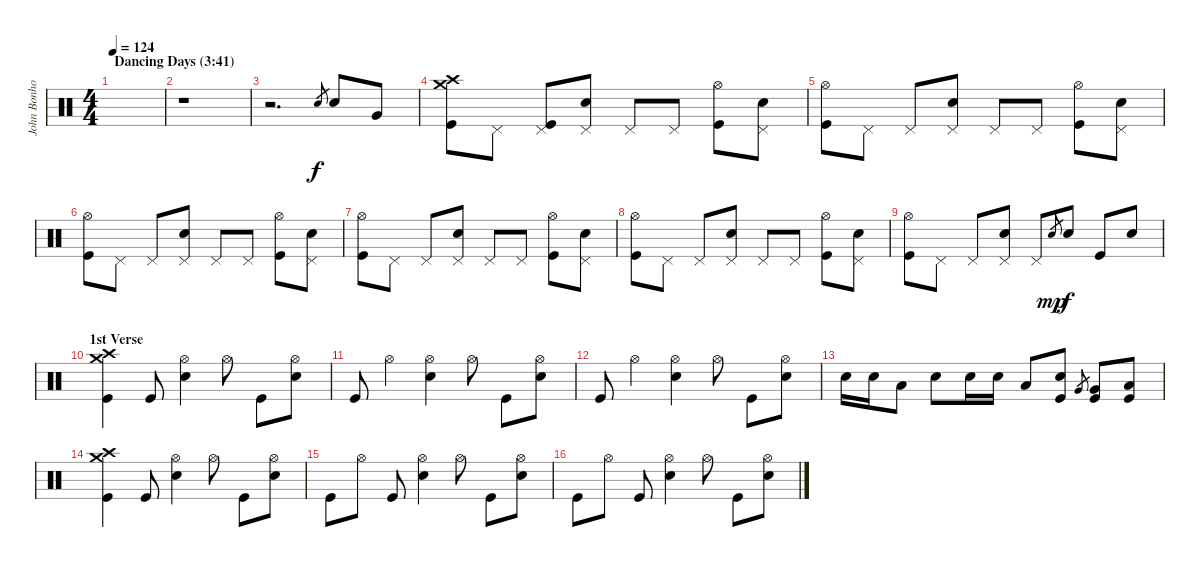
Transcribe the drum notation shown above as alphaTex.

\track ("John Bonhom" "John Bonho") {instrument percussion}
\staff {score}
\articulation defaults
\ts (4 4)
\section ("" "Dancing Days (3:41)")
\tempo 124
\clef neutral
\ks c
|
r.1 |
r.2{d} "Electric Snare (hit)".8{gr} "Electric Snare (hit)".8 "Very Low Tom (hit)".8 |
("Crash high (hit)" "Crash medium (hit)" "Kick (hit)").8 "Pedal Hi-Hat (hit)".8 ("Pedal Hi-Hat (hit)" "Kick (hit)").8 ("Pedal Hi-Hat (hit)" "Electric Snare (hit)").8 "Pedal Hi-Hat (hit)".8 "Pedal Hi-Hat (hit)".8 ("Hi-Hat (open)" "Kick (hit)").8 ("Pedal Hi-Hat (hit)" "Electric Snare (hit)").8 |
("Hi-Hat (open)" "Kick (hit)").8 "Pedal Hi-Hat (hit)".8 "Pedal Hi-Hat (hit)".8 ("Pedal Hi-Hat (hit)" "Electric Snare (hit)").8 "Pedal Hi-Hat (hit)".8 "Pedal Hi-Hat (hit)".8 ("Hi-Hat (open)" "Kick (hit)").8 ("Pedal Hi-Hat (hit)" "Electric Snare (hit)").8 |
("Hi-Hat (open)" "Kick (hit)").8 "Pedal Hi-Hat (hit)".8 "Pedal Hi-Hat (hit)".8 ("Pedal Hi-Hat (hit)" "Electric Snare (hit)").8 "Pedal Hi-Hat (hit)".8 "Pedal Hi-Hat (hit)".8 ("Hi-Hat (open)" "Kick (hit)").8 ("Pedal Hi-Hat (hit)" "Electric Snare (hit)").8 |
("Hi-Hat (open)" "Kick (hit)").8 "Pedal Hi-Hat (hit)".8 "Pedal Hi-Hat (hit)".8 ("Pedal Hi-Hat (hit)" "Electric Snare (hit)").8 "Pedal Hi-Hat (hit)".8 "Pedal Hi-Hat (hit)".8 ("Hi-Hat (open)" "Kick (hit)").8 ("Pedal Hi-Hat (hit)" "Electric Snare (hit)").8 |
("Hi-Hat (open)" "Kick (hit)").8 "Pedal Hi-Hat (hit)".8 "Pedal Hi-Hat (hit)".8 ("Pedal Hi-Hat (hit)" "Electric Snare (hit)").8 "Pedal Hi-Hat (hit)".8 "Pedal Hi-Hat (hit)".8 ("Hi-Hat (open)" "Kick (hit)").8 ("Pedal Hi-Hat (hit)" "Electric Snare (hit)").8 |
("Hi-Hat (open)" "Kick (hit)").8 "Pedal Hi-Hat (hit)".8 "Pedal Hi-Hat (hit)".8 ("Pedal Hi-Hat (hit)" "Electric Snare (hit)").8 "Pedal Hi-Hat (hit)".8 "Electric Snare (hit)".8{gr dy mp} "Electric Snare (hit)".8{dy f} "Kick (hit)".8 "Electric Snare (hit)".8 |
\section ("" "1st Verse")
("Crash high (hit)" "Crash medium (hit)" "Kick (hit)").4 "Kick (hit)".8 ("Hi-Hat (open)" "Electric Snare (hit)").4 "Hi-Hat (open)".8 "Kick (hit)".8 ("Hi-Hat (open)" "Electric Snare (hit)").8 |
"Kick (hit)".8 "Hi-Hat (open)".4 ("Hi-Hat (open)" "Electric Snare (hit)").4 "Hi-Hat (open)".8 "Kick (hit)".8 ("Hi-Hat (open)" "Electric Snare (hit)").8 |
"Kick (hit)".8 "Hi-Hat (open)".4 ("Hi-Hat (open)" "Electric Snare (hit)").4 "Hi-Hat (open)".8 "Kick (hit)".8 ("Hi-Hat (open)" "Electric Snare (hit)").8 |
"Electric Snare (hit)".16 "Electric Snare (hit)".16 "Low Floor Tom (hit)".8 "Electric Snare (hit)".8 "Electric Snare (hit)".16 "Electric Snare (hit)".16 "Low Floor Tom (hit)".8 ("Electric Snare (hit)" "Kick (hit)").8 "Very Low Tom (hit)".8{gr} ("Very Low Tom (hit)" "Kick (hit)").8 ("Low Floor Tom (hit)" "Kick (hit)").8 |
("Crash high (hit)" "Crash medium (hit)" "Kick (hit)").4 "Kick (hit)".8 ("Hi-Hat (open)" "Electric Snare (hit)").4 "Hi-Hat (open)".8 "Kick (hit)".8 ("Hi-Hat (open)" "Electric Snare (hit)").8 |
"Kick (hit)".8 "Hi-Hat (open)".8 "Kick (hit)".8 ("Hi-Hat (open)" "Electric Snare (hit)").4 "Hi-Hat (open)".8 "Kick (hit)".8 ("Hi-Hat (open)" "Electric Snare (hit)").8 |
"Kick (hit)".8 "Hi-Hat (open)".8 "Kick (hit)".8 ("Hi-Hat (open)" "Electric Snare (hit)").4 "Hi-Hat (open)".8 "Kick (hit)".8 ("Hi-Hat (open)" "Electric Snare (hit)").8
